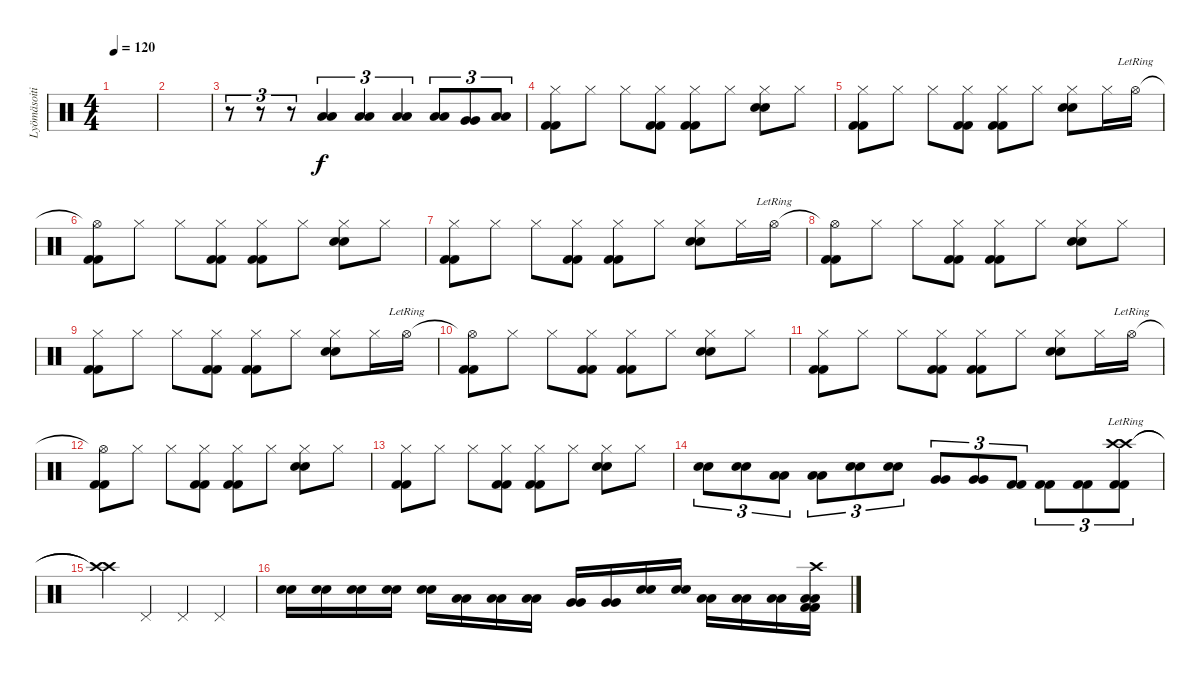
\track ("Lyömäsoitin" "Lyömäsoiti") {instrument percussion}
\staff {score}
\articulation defaults
\ts (4 4)
\tempo 120
\clef neutral
\ks c
|
|
r.8{tu (3 2)} r.8{tu (3 2)} r.8{tu (3 2)} ("Low Tom (hit)" "Low Tom (hit)").4{tu (3 2)} ("Low Tom (hit)" "Low Tom (hit)").4{tu (3 2)} ("Low Floor Tom (hit)" "Low Floor Tom (hit)").4{tu (3 2)} ("Low Tom (hit)" "Low Tom (hit)").8{tu (3 2)} ("Very Low Tom (hit)" "Very Low Tom (hit)").8{tu (3 2)} ("Low Floor Tom (hit)" "Low Floor Tom (hit)").8{tu (3 2)} |
("Hi-Hat (closed)" "Kick (hit) 2" "Kick (hit) 2").8 "Hi-Hat (closed)".8 "Hi-Hat (closed)".8 ("Hi-Hat (closed)" "Kick (hit) 2" "Kick (hit) 2").8 ("Hi-Hat (closed)" "Kick (hit) 2" "Kick (hit) 2").8 "Hi-Hat (closed)".8 ("Hi-Hat (closed)" "Electric Snare (hit)" "Electric Snare (hit)").8 "Hi-Hat (closed)".8 |
("Hi-Hat (closed)" "Kick (hit) 2" "Kick (hit) 2").8 "Hi-Hat (closed)".8 "Hi-Hat (closed)".8 ("Hi-Hat (closed)" "Kick (hit) 2" "Kick (hit) 2").8 ("Hi-Hat (closed)" "Kick (hit) 2" "Kick (hit) 2").8 "Hi-Hat (closed)".8 ("Hi-Hat (closed)" "Electric Snare (hit)" "Electric Snare (hit)").8 "Hi-Hat (closed)".16 "Hi-Hat (open)"{lr}.16 |
("Hi-Hat (open)"{t} "Kick (hit) 2" "Kick (hit) 2").8 "Hi-Hat (closed)".8 "Hi-Hat (closed)".8 ("Hi-Hat (closed)" "Kick (hit) 2" "Kick (hit) 2").8 ("Hi-Hat (closed)" "Kick (hit) 2" "Kick (hit) 2").8 "Hi-Hat (closed)".8 ("Hi-Hat (closed)" "Electric Snare (hit)" "Electric Snare (hit)").8 "Hi-Hat (closed)".8 |
("Hi-Hat (closed)" "Kick (hit) 2" "Kick (hit) 2").8 "Hi-Hat (closed)".8 "Hi-Hat (closed)".8 ("Hi-Hat (closed)" "Kick (hit) 2" "Kick (hit) 2").8 ("Hi-Hat (closed)" "Kick (hit) 2" "Kick (hit) 2").8 "Hi-Hat (closed)".8 ("Hi-Hat (closed)" "Electric Snare (hit)" "Electric Snare (hit)").8 "Hi-Hat (closed)".16 "Hi-Hat (open)"{lr}.16 |
("Hi-Hat (open)"{t} "Kick (hit) 2" "Kick (hit) 2").8 "Hi-Hat (closed)".8 "Hi-Hat (closed)".8 ("Hi-Hat (closed)" "Kick (hit) 2" "Kick (hit) 2").8 ("Hi-Hat (closed)" "Kick (hit) 2" "Kick (hit) 2").8 "Hi-Hat (closed)".8 ("Hi-Hat (closed)" "Electric Snare (hit)" "Electric Snare (hit)").8 "Hi-Hat (closed)".8 |
("Hi-Hat (closed)" "Kick (hit) 2" "Kick (hit) 2").8 "Hi-Hat (closed)".8 "Hi-Hat (closed)".8 ("Hi-Hat (closed)" "Kick (hit) 2" "Kick (hit) 2").8 ("Hi-Hat (closed)" "Kick (hit) 2" "Kick (hit) 2").8 "Hi-Hat (closed)".8 ("Hi-Hat (closed)" "Electric Snare (hit)" "Electric Snare (hit)").8 "Hi-Hat (closed)".16 "Hi-Hat (open)"{lr}.16 |
("Hi-Hat (open)"{t} "Kick (hit) 2" "Kick (hit) 2").8 "Hi-Hat (closed)".8 "Hi-Hat (closed)".8 ("Hi-Hat (closed)" "Kick (hit) 2" "Kick (hit) 2").8 ("Hi-Hat (closed)" "Kick (hit) 2" "Kick (hit) 2").8 "Hi-Hat (closed)".8 ("Hi-Hat (closed)" "Electric Snare (hit)" "Electric Snare (hit)").8 "Hi-Hat (closed)".8 |
("Hi-Hat (closed)" "Kick (hit) 2" "Kick (hit) 2").8 "Hi-Hat (closed)".8 "Hi-Hat (closed)".8 ("Hi-Hat (closed)" "Kick (hit) 2" "Kick (hit) 2").8 ("Hi-Hat (closed)" "Kick (hit) 2" "Kick (hit) 2").8 "Hi-Hat (closed)".8 ("Hi-Hat (closed)" "Electric Snare (hit)" "Electric Snare (hit)").8 "Hi-Hat (closed)".16 "Hi-Hat (open)"{lr}.16 |
("Hi-Hat (open)"{t} "Kick (hit) 2" "Kick (hit) 2").8 "Hi-Hat (closed)".8 "Hi-Hat (closed)".8 ("Hi-Hat (closed)" "Kick (hit) 2" "Kick (hit) 2").8 ("Hi-Hat (closed)" "Kick (hit) 2" "Kick (hit) 2").8 "Hi-Hat (closed)".8 ("Hi-Hat (closed)" "Electric Snare (hit)" "Electric Snare (hit)").8 "Hi-Hat (closed)".8 |
("Hi-Hat (closed)" "Kick (hit) 2" "Kick (hit) 2").8 "Hi-Hat (closed)".8 "Hi-Hat (closed)".8 ("Hi-Hat (closed)" "Kick (hit) 2" "Kick (hit) 2").8 ("Hi-Hat (closed)" "Kick (hit) 2" "Kick (hit) 2").8 "Hi-Hat (closed)".8 ("Hi-Hat (closed)" "Electric Snare (hit)" "Electric Snare (hit)").8 "Hi-Hat (closed)".8 |
("Electric Snare (hit)" "Electric Snare (hit)").8{tu (3 2)} ("Electric Snare (hit)" "Electric Snare (hit)").8{tu (3 2)} ("Low Tom (hit)" "Low Tom (hit)").8{tu (3 2)} ("Low Tom (hit)" "Low Tom (hit)").8{tu (3 2)} ("Electric Snare (hit)" "Electric Snare (hit)").8{tu (3 2)} ("Electric Snare (hit)" "Electric Snare (hit)").8{tu (3 2)} ("Very Low Tom (hit)" "Very Low Tom (hit)").8{tu (3 2)} ("Very Low Tom (hit)" "Very Low Tom (hit)").8{tu (3 2)} ("Kick (hit) 2" "Kick (hit) 2").8{tu (3 2)} ("Kick (hit) 2" "Kick (hit) 2").8{tu (3 2)} ("Kick (hit) 2" "Kick (hit) 2").8{tu (3 2)} ("Crash high (hit)"{lr} "Crash high (hit)"{lr} "Kick (hit) 2" "Kick (hit) 2").8{tu (3 2)} |
("Crash high (hit)"{t} "Crash high (hit)"{t}).4 "Pedal Hi-Hat (hit)".4 "Pedal Hi-Hat (hit)".4 "Pedal Hi-Hat (hit)".4 |
("Electric Snare (hit)" "Electric Snare (hit)").16 ("Electric Snare (hit)" "Electric Snare (hit)").16 ("Electric Snare (hit)" "Electric Snare (hit)").16 ("Electric Snare (hit)" "Electric Snare (hit)").16 ("Electric Snare (hit)" "Electric Snare (hit)").16 ("Low Tom (hit)" "Low Tom (hit)").16 ("Low Tom (hit)" "Low Tom (hit)").16 ("Low Tom (hit)" "Low Tom (hit)").16 ("Very Low Tom (hit)" "Very Low Tom (hit)").16 ("Very Low Tom (hit)" "Very Low Tom (hit)").16 ("Electric Snare (hit)" "Electric Snare (hit)").16 ("Electric Snare (hit)" "Electric Snare (hit)").16 ("Low Floor Tom (hit)" "Low Floor Tom (hit)").16 ("Low Floor Tom (hit)" "Low Floor Tom (hit)").16 ("Low Floor Tom (hit)" "Low Floor Tom (hit)").16 ("Crash high (hit)" "Kick (hit) 2" "Kick (hit) 2" "Low Floor Tom (hit)" "Low Floor Tom (hit)").16
